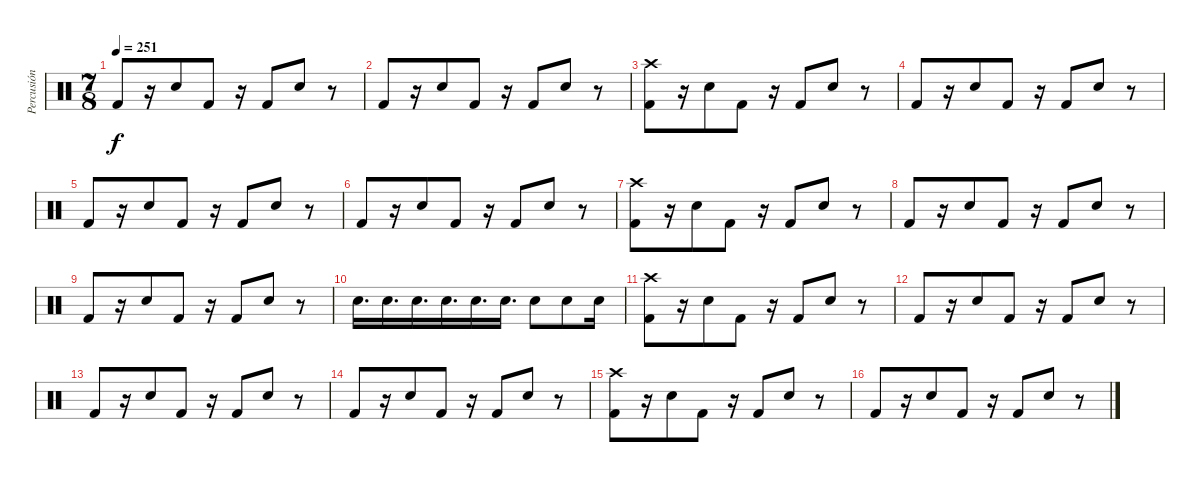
\track ("Percusión" "Percusión") {instrument percussion}
\staff {score}
\articulation defaults
\ts (7 8)
\tempo 251
\clef neutral
\ks c "Kick (hit) 2".8{dy f}
r.16 "Snare (hit) 2".8 "Kick (hit) 2".8 r.16 "Kick (hit) 2".8 "Snare (hit) 2".8 r.8 |
"Kick (hit) 2".8 r.16 "Snare (hit) 2".8 "Kick (hit) 2".8 r.16 "Kick (hit) 2".8 "Snare (hit) 2".8 r.8 |
("Crash high (hit)" "Kick (hit) 2").8 r.16 "Snare (hit) 2".8 "Kick (hit) 2".8 r.16 "Kick (hit) 2".8 "Snare (hit) 2".8 r.8 |
"Kick (hit) 2".8 r.16 "Snare (hit) 2".8 "Kick (hit) 2".8 r.16 "Kick (hit) 2".8 "Snare (hit) 2".8 r.8 |
"Kick (hit) 2".8 r.16 "Snare (hit) 2".8 "Kick (hit) 2".8 r.16 "Kick (hit) 2".8 "Snare (hit) 2".8 r.8 |
"Kick (hit) 2".8 r.16 "Snare (hit) 2".8 "Kick (hit) 2".8 r.16 "Kick (hit) 2".8 "Snare (hit) 2".8 r.8 |
("Crash high (hit)" "Kick (hit) 2").8 r.16 "Snare (hit) 2".8 "Kick (hit) 2".8 r.16 "Kick (hit) 2".8 "Snare (hit) 2".8 r.8 |
"Kick (hit) 2".8 r.16 "Snare (hit) 2".8 "Kick (hit) 2".8 r.16 "Kick (hit) 2".8 "Snare (hit) 2".8 r.8 |
"Kick (hit) 2".8 r.16 "Snare (hit) 2".8 "Kick (hit) 2".8 r.16 "Kick (hit) 2".8 "Snare (hit) 2".8 r.8 |
"Snare (hit) 2".16{d} "Snare (hit) 2".16{d} "Snare (hit) 2".16{d} "Snare (hit) 2".16{d} "Snare (hit) 2".16{d} "Snare (hit) 2".16{d} "Snare (hit) 2".8 "Snare (hit) 2".8 "Snare (hit) 2".16 |
("Crash high (hit)" "Kick (hit) 2").8 r.16 "Snare (hit) 2".8 "Kick (hit) 2".8 r.16 "Kick (hit) 2".8 "Snare (hit) 2".8 r.8 |
"Kick (hit) 2".8 r.16 "Snare (hit) 2".8 "Kick (hit) 2".8 r.16 "Kick (hit) 2".8 "Snare (hit) 2".8 r.8 |
"Kick (hit) 2".8 r.16 "Snare (hit) 2".8 "Kick (hit) 2".8 r.16 "Kick (hit) 2".8 "Snare (hit) 2".8 r.8 |
"Kick (hit) 2".8 r.16 "Snare (hit) 2".8 "Kick (hit) 2".8 r.16 "Kick (hit) 2".8 "Snare (hit) 2".8 r.8 |
("Crash high (hit)" "Kick (hit) 2").8 r.16 "Snare (hit) 2".8 "Kick (hit) 2".8 r.16 "Kick (hit) 2".8 "Snare (hit) 2".8 r.8 |
"Kick (hit) 2".8 r.16 "Snare (hit) 2".8 "Kick (hit) 2".8 r.16 "Kick (hit) 2".8 "Snare (hit) 2".8 r.8
